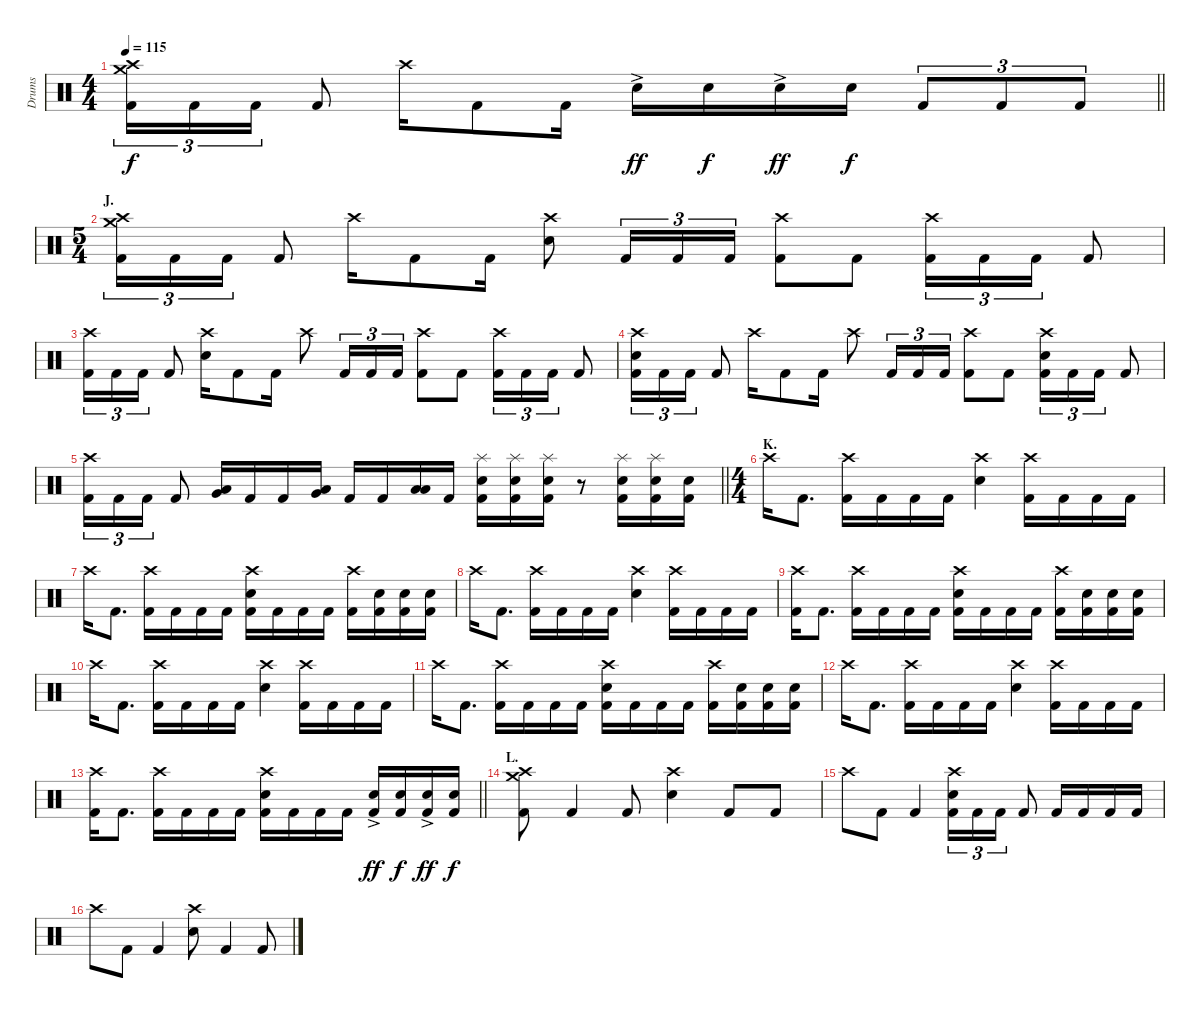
\track ("Drums" "Drums") {instrument percussion}
\staff {score}
\articulation defaults
\ts (4 4)
\tempo 115
\clef neutral
\barLineRight lightlight
\ks c
("Crash medium (hit)" "Crash high (hit)" "Kick (hit) 2").16{tu (3 2) dy f} "Kick (hit) 2".16{tu (3 2)} "Kick (hit) 2".16{tu (3 2)} "Kick (hit) 2".8 "Crash high (hit)".16 "Kick (hit) 2".8 "Kick (hit) 2".16 "Electric Snare (hit)"{ac}.16{dy ff} "Electric Snare (hit)".16{dy f} "Electric Snare (hit)"{ac}.16{dy ff} "Electric Snare (hit)".16{dy f} "Kick (hit) 2".8{tu (3 2)} "Kick (hit) 2".8{tu (3 2)} "Kick (hit) 2".8{tu (3 2)} |
\ts (5 4)
\section ("" "J.")
("Crash medium (hit)" "Crash high (hit)" "Kick (hit) 2").16{tu (3 2)} "Kick (hit) 2".16{tu (3 2)} "Kick (hit) 2".16{tu (3 2)} "Kick (hit) 2".8 "Crash high (hit)".16 "Kick (hit) 2".8 "Kick (hit) 2".16 ("Crash high (hit)" "Electric Snare (hit)").8 "Kick (hit) 2".16{tu (3 2)} "Kick (hit) 2".16{tu (3 2)} "Kick (hit) 2".16{tu (3 2)} ("Crash high (hit)" "Kick (hit) 2").8 "Kick (hit) 2".8 ("Crash high (hit)" "Kick (hit) 2").16{tu (3 2)} "Kick (hit) 2".16{tu (3 2)} "Kick (hit) 2".16{tu (3 2)} "Kick (hit) 2".8 |
("Crash high (hit)" "Kick (hit) 2").16{tu (3 2)} "Kick (hit) 2".16{tu (3 2)} "Kick (hit) 2".16{tu (3 2)} "Kick (hit) 2".8 ("Crash high (hit)" "Electric Snare (hit)").16 "Kick (hit) 2".8 "Kick (hit) 2".16 "Crash high (hit)".8 "Kick (hit) 2".16{tu (3 2)} "Kick (hit) 2".16{tu (3 2)} "Kick (hit) 2".16{tu (3 2)} ("Crash high (hit)" "Kick (hit) 2").8 "Kick (hit) 2".8 ("Crash high (hit)" "Kick (hit) 2").16{tu (3 2)} "Kick (hit) 2".16{tu (3 2)} "Kick (hit) 2".16{tu (3 2)} "Kick (hit) 2".8 |
("Crash high (hit)" "Electric Snare (hit)" "Kick (hit) 2").16{tu (3 2)} "Kick (hit) 2".16{tu (3 2)} "Kick (hit) 2".16{tu (3 2)} "Kick (hit) 2".8 "Crash high (hit)".16 "Kick (hit) 2".8 "Kick (hit) 2".16 "Crash high (hit)".8 "Kick (hit) 2".16{tu (3 2)} "Kick (hit) 2".16{tu (3 2)} "Kick (hit) 2".16{tu (3 2)} ("Crash high (hit)" "Kick (hit) 2").8 "Kick (hit) 2".8 ("Crash high (hit)" "Electric Snare (hit)" "Kick (hit) 2").16{tu (3 2)} "Kick (hit) 2".16{tu (3 2)} "Kick (hit) 2".16{tu (3 2)} "Kick (hit) 2".8 |
\barLineRight lightlight
("Crash high (hit)" "Kick (hit) 2").16{tu (3 2)} "Kick (hit) 2".16{tu (3 2)} "Kick (hit) 2".16{tu (3 2)} "Kick (hit) 2".8 ("Low Tom (hit)" "Very Low Tom (hit)").16{bu 120} "Kick (hit) 2".16 "Kick (hit) 2".16 ("Very Low Tom (hit)" "Low Floor Tom (hit)").16{bu 120} "Kick (hit) 2".16 "Kick (hit) 2".16 ("Low Floor Tom (hit)" "Low Floor Tom (hit)").16{bu 120} "Kick (hit) 2".16 ("Splash (hit)" "Electric Snare (hit)" "Kick (hit) 2").16 ("Splash (hit)" "Electric Snare (hit)" "Kick (hit) 2").16 ("Splash (hit)" "Electric Snare (hit)" "Kick (hit) 2").16 r.8 ("Splash (hit)" "Electric Snare (hit)" "Kick (hit) 2").16 ("Splash (hit)" "Electric Snare (hit)" "Kick (hit) 2").16 ("Electric Snare (hit)" "Kick (hit) 2").16 |
\ts (4 4)
\section ("" "K.")
"Crash high (hit)".16 "Kick (hit) 2".8{d} ("Crash high (hit)" "Kick (hit) 2").16 "Kick (hit) 2".16 "Kick (hit) 2".16 "Kick (hit) 2".16 ("Crash high (hit)" "Electric Snare (hit)").4 ("Crash high (hit)" "Kick (hit) 2").16 "Kick (hit) 2".16 "Kick (hit) 2".16 "Kick (hit) 2".16 |
"Crash high (hit)".16 "Kick (hit) 2".8{d} ("Crash high (hit)" "Kick (hit) 2").16 "Kick (hit) 2".16 "Kick (hit) 2".16 "Kick (hit) 2".16 ("Crash high (hit)" "Electric Snare (hit)" "Kick (hit) 2").16 "Kick (hit) 2".16 "Kick (hit) 2".16 "Kick (hit) 2".16 ("Crash high (hit)" "Kick (hit) 2").16 ("Electric Snare (hit)" "Kick (hit) 2").16 ("Electric Snare (hit)" "Kick (hit) 2").16 ("Electric Snare (hit)" "Kick (hit) 2").16 |
"Crash high (hit)".16 "Kick (hit) 2".8{d} ("Crash high (hit)" "Kick (hit) 2").16 "Kick (hit) 2".16 "Kick (hit) 2".16 "Kick (hit) 2".16 ("Crash high (hit)" "Electric Snare (hit)").4 ("Crash high (hit)" "Kick (hit) 2").16 "Kick (hit) 2".16 "Kick (hit) 2".16 "Kick (hit) 2".16 |
("Crash high (hit)" "Kick (hit) 2").16 "Kick (hit) 2".8{d} ("Crash high (hit)" "Kick (hit) 2").16 "Kick (hit) 2".16 "Kick (hit) 2".16 "Kick (hit) 2".16 ("Crash high (hit)" "Electric Snare (hit)" "Kick (hit) 2").16 "Kick (hit) 2".16 "Kick (hit) 2".16 "Kick (hit) 2".16 ("Crash high (hit)" "Kick (hit) 2").16 ("Electric Snare (hit)" "Kick (hit) 2").16 ("Electric Snare (hit)" "Kick (hit) 2").16 ("Electric Snare (hit)" "Kick (hit) 2").16 |
"Crash high (hit)".16 "Kick (hit) 2".8{d} ("Crash high (hit)" "Kick (hit) 2").16 "Kick (hit) 2".16 "Kick (hit) 2".16 "Kick (hit) 2".16 ("Crash high (hit)" "Electric Snare (hit)").4 ("Crash high (hit)" "Kick (hit) 2").16 "Kick (hit) 2".16 "Kick (hit) 2".16 "Kick (hit) 2".16 |
"Crash high (hit)".16 "Kick (hit) 2".8{d} ("Crash high (hit)" "Kick (hit) 2").16 "Kick (hit) 2".16 "Kick (hit) 2".16 "Kick (hit) 2".16 ("Crash high (hit)" "Electric Snare (hit)" "Kick (hit) 2").16 "Kick (hit) 2".16 "Kick (hit) 2".16 "Kick (hit) 2".16 ("Crash high (hit)" "Kick (hit) 2").16 ("Electric Snare (hit)" "Kick (hit) 2").16 ("Electric Snare (hit)" "Kick (hit) 2").16 ("Electric Snare (hit)" "Kick (hit) 2").16 |
"Crash high (hit)".16 "Kick (hit) 2".8{d} ("Crash high (hit)" "Kick (hit) 2").16 "Kick (hit) 2".16 "Kick (hit) 2".16 "Kick (hit) 2".16 ("Crash high (hit)" "Electric Snare (hit)").4 ("Crash high (hit)" "Kick (hit) 2").16 "Kick (hit) 2".16 "Kick (hit) 2".16 "Kick (hit) 2".16 |
\barLineRight lightlight
("Crash high (hit)" "Kick (hit) 2").16 "Kick (hit) 2".8{d} ("Crash high (hit)" "Kick (hit) 2").16 "Kick (hit) 2".16 "Kick (hit) 2".16 "Kick (hit) 2".16 ("Crash high (hit)" "Electric Snare (hit)" "Kick (hit) 2").16 "Kick (hit) 2".16 "Kick (hit) 2".16 "Kick (hit) 2".16 ("Electric Snare (hit)"{ac} "Kick (hit) 2").16{dy ff} ("Electric Snare (hit)" "Kick (hit) 2").16{dy f} ("Electric Snare (hit)"{ac} "Kick (hit) 2").16{dy ff} ("Electric Snare (hit)" "Kick (hit) 2").16{dy f} |
\section ("" "L.")
("Crash medium (hit)" "Crash high (hit)" "Kick (hit) 2").8 "Kick (hit) 2".4 "Kick (hit) 2".8 ("Crash high (hit)" "Electric Snare (hit)").4 "Kick (hit) 2".8 "Kick (hit) 2".8 |
"Crash high (hit)".8 "Kick (hit) 2".8 "Kick (hit) 2".4 ("Crash high (hit)" "Electric Snare (hit)" "Kick (hit) 2").16{tu (3 2)} "Kick (hit) 2".16{tu (3 2)} "Kick (hit) 2".16{tu (3 2)} "Kick (hit) 2".8 "Kick (hit) 2".16 "Kick (hit) 2".16 "Kick (hit) 2".16 "Kick (hit) 2".16 |
"Crash high (hit)".8 "Kick (hit) 2".8 "Kick (hit) 2".4 ("Crash high (hit)" "Electric Snare (hit)").8 "Kick (hit) 2".4 "Kick (hit) 2".8
